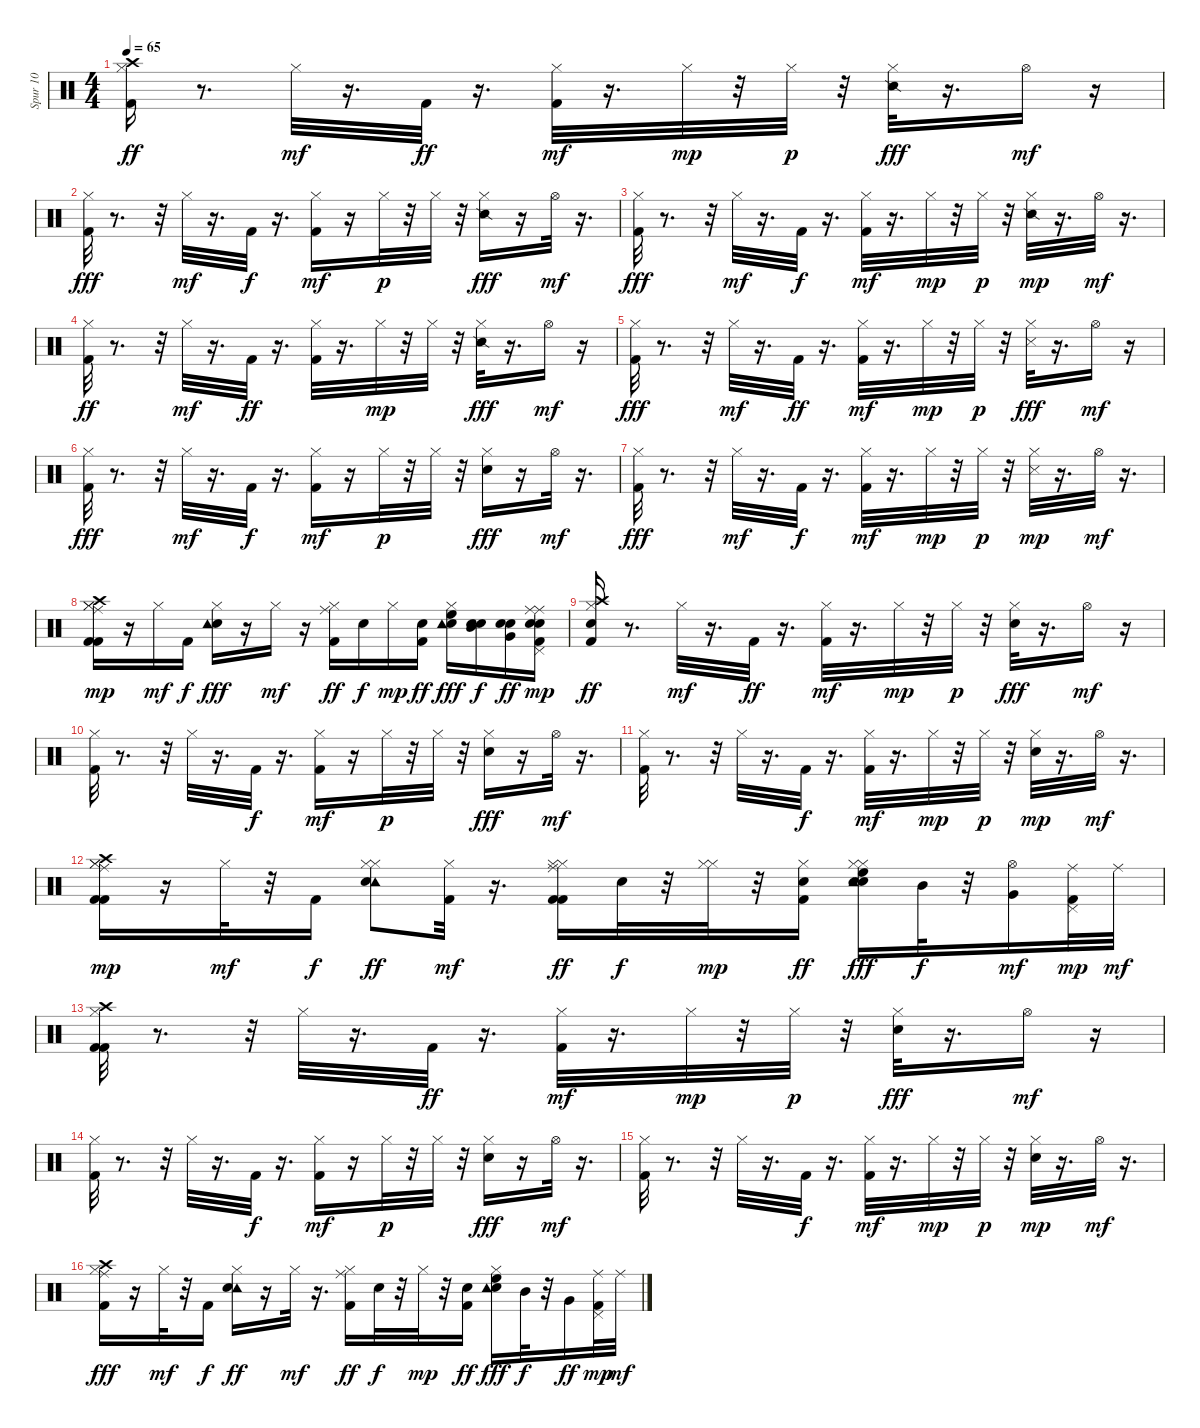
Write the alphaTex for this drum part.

\track ("Spur 10" "Spur 10") {instrument percussion}
\staff {score}
\articulation defaults
\ts (4 4)
\tempo 65
\clef neutral
\ks c
("Kick (hit) 2" "Hi-Hat (closed)" "Crash high (hit)").16{dy ff} r.8{d} "Hi-Hat (closed)".32{dy mf} r.16{d} "Kick (hit) 2".32{dy ff} r.16{d} ("Kick (hit) 2" "Hi-Hat (closed)").32{dy mf} r.16{d} "Hi-Hat (closed)".32{dy mp} r.32 "Hi-Hat (closed)".32{dy p} r.32 ("Hi-Hat (closed)" "Snare (side stick) 2").32{dy fff} r.16{d} "Hi-Hat (open)".16{dy mf} r.16 |
("Hi-Hat (closed)" "Kick (hit) 2").32{dy fff} r.8{d} r.32 "Hi-Hat (closed)".32{dy mf} r.16{d} "Kick (hit) 2".32{dy f} r.16{d} ("Kick (hit) 2" "Hi-Hat (closed)").16{dy mf} r.16 "Hi-Hat (closed)".32{dy p} r.32 "Hi-Hat (closed)".32 r.32 ("Hi-Hat (closed)" "Snare (side stick) 2").16{dy fff} r.16 "Hi-Hat (open)".32{dy mf} r.16{d} |
("Hi-Hat (closed)" "Kick (hit) 2").32{dy fff} r.8{d} r.32 "Hi-Hat (closed)".32{dy mf} r.16{d} "Kick (hit) 2".32{dy f} r.16{d} ("Kick (hit) 2" "Hi-Hat (closed)").32{dy mf} r.16{d} "Hi-Hat (closed)".32{dy mp} r.32 "Hi-Hat (closed)".32{dy p} r.32 ("Snare (side stick) 2" "Hi-Hat (closed)").32{dy mp} r.16{d} "Hi-Hat (open)".32{dy mf} r.16{d} |
("Hi-Hat (closed)" "Kick (hit) 2").32{dy ff} r.8{d} r.32 "Hi-Hat (closed)".32{dy mf} r.16{d} "Kick (hit) 2".32{dy ff} r.16{d} ("Hi-Hat (closed)" "Kick (hit) 2").32 r.16{d} "Hi-Hat (closed)".32{dy mp} r.32 "Hi-Hat (closed)".32 r.32 ("Hi-Hat (closed)" "Snare (side stick) 2").32{dy fff} r.16{d} "Hi-Hat (open)".16{dy mf} r.16 |
("Hi-Hat (closed)" "Kick (hit) 2").32{dy fff} r.8{d} r.32 "Hi-Hat (closed)".32{dy mf} r.16{d} "Kick (hit) 2".32{dy ff} r.16{d} ("Kick (hit) 2" "Hi-Hat (closed)").32{dy mf} r.16{d} "Hi-Hat (closed)".32{dy mp} r.32 "Hi-Hat (closed)".32{dy p} r.32 ("Hi-Hat (closed)" "Snare (side stick) 3").32{dy fff} r.16{d} "Hi-Hat (open)".16{dy mf} r.16 |
("Hi-Hat (closed)" "Kick (hit) 2").32{dy fff} r.8{d} r.32 "Hi-Hat (closed)".32{dy mf} r.16{d} "Kick (hit) 2".32{dy f} r.16{d} ("Kick (hit) 2" "Hi-Hat (closed)").16{dy mf} r.16 "Hi-Hat (closed)".32{dy p} r.32 "Hi-Hat (closed)".32 r.32 ("Hi-Hat (closed)" "Snare (hit) 2").16{dy fff} r.16 "Hi-Hat (open)".32{dy mf} r.16{d} |
("Hi-Hat (closed)" "Kick (hit) 2").32{dy fff} r.8{d} r.32 "Hi-Hat (closed)".32{dy mf} r.16{d} "Kick (hit) 2".32{dy f} r.16{d} ("Kick (hit) 2" "Hi-Hat (closed)").32{dy mf} r.16{d} "Hi-Hat (closed)".32{dy mp} r.32 "Hi-Hat (closed)".32{dy p} r.32 ("Snare (side stick) 3" "Hi-Hat (closed)").32{dy mp} r.16{d} "Hi-Hat (open)".32{dy mf} r.16{d} |
("Hi-Hat (closed)" "Crash high (hit)" "Ride (middle)" "Kick (hit) 2" "Kick (hit) 2" "Hi-Hat (closed)").16{dy mp} r.16 "Hi-Hat (closed)".16{dy mf} "Kick (hit) 2".16{dy f} ("Hi-Hat (closed)" "Electric Snare (hit)" "Tambourine (hit)").16{dy fff} r.16 "Hi-Hat (closed)".16{dy mf} r.16 ("Ride (middle)" "Hi-Hat (closed)" "Kick (hit) 2").16{dy ff} "Electric Snare (hit)".16{dy f} "Hi-Hat (closed)".16{dy mp} ("Kick (hit) 2" "Electric Snare (hit)").16{dy ff} ("High Floor Tom (hit)" "Electric Snare (hit)" "Hi-Hat (closed)" "Tambourine (hit)").16{dy fff} ("Electric Snare (hit)" "Electric Snare (hit)" "Mid Tom (hit)").16{dy f} ("Electric Snare (hit)" "Electric Snare (hit)" "Very Low Tom (hit)").16{dy ff} ("Electric Snare (hit)" "Pedal Hi-Hat (hit)" "Ride (middle)" "Electric Snare (hit)" "Ride (middle)" "Kick (hit) 2").16{dy mp} |
("Hi-Hat (closed)" "Electric Snare (hit)" "Kick (hit) 2" "Crash high (hit)").16{dy ff} r.8{d} "Hi-Hat (closed)".32{dy mf} r.16{d} "Kick (hit) 2".32{dy ff} r.16{d} ("Kick (hit) 2" "Hi-Hat (closed)").32{dy mf} r.16{d} "Hi-Hat (closed)".32{dy mp} r.32 "Hi-Hat (closed)".32{dy p} r.32 ("Hi-Hat (closed)" "Snare (hit) 2").32{dy fff} r.16{d} "Hi-Hat (open)".16{dy mf} r.16 |
("Kick (hit) 2" "Hi-Hat (closed)").32 r.8{d} r.32 "Hi-Hat (closed)".32 r.16{d} "Kick (hit) 2".32{dy f} r.16{d} ("Kick (hit) 2" "Hi-Hat (closed)").16{dy mf} r.16 "Hi-Hat (closed)".32{dy p} r.32 "Hi-Hat (closed)".32 r.32 ("Hi-Hat (closed)" "Snare (hit) 2").16{dy fff} r.16 "Hi-Hat (open)".32{dy mf} r.16{d} |
("Kick (hit) 2" "Hi-Hat (closed)").32 r.8{d} r.32 "Hi-Hat (closed)".32 r.16{d} "Kick (hit) 2".32{dy f} r.16{d} ("Kick (hit) 2" "Hi-Hat (closed)").32{dy mf} r.16{d} "Hi-Hat (closed)".32{dy mp} r.32 "Hi-Hat (closed)".32{dy p} r.32 ("Snare (hit) 2" "Hi-Hat (closed)").32{dy mp} r.16{d} "Hi-Hat (open)".32{dy mf} r.16{d} |
("Kick (hit) 2" "Hi-Hat (closed)" "Crash high (hit)" "Ride (middle)" "Kick (hit) 2" "Hi-Hat (closed)").16{dy mp} r.16 "Hi-Hat (closed)".32{dy mf} r.32 "Kick (hit) 2".16{dy f} ("Hi-Hat (closed)" "Tambourine (hit)" "Hi-Hat (closed)" "Electric Snare (hit)").8{dy ff} ("Kick (hit) 2" "Hi-Hat (closed)").32{dy mf} r.16{d} ("Ride (middle)" "Hi-Hat (closed)" "Hi-Hat (closed)" "Kick (hit) 2" "Kick (hit) 2").16{dy ff} "Electric Snare (hit)".32{dy f} r.32 ("Hi-Hat (closed)" "Hi-Hat (closed)").32{dy mp} r.32 ("Kick (hit) 2" "Hi-Hat (closed)" "Electric Snare (hit)").16{dy ff} ("High Floor Tom (hit)" "Hi-Hat (closed)" "Hi-Hat (closed)" "Electric Snare (hit)" "Snare (hit) 2" "Tambourine (hit)").16{dy fff} "Mid Tom (hit)".32{dy f} r.32 ("Very Low Tom (hit)" "Hi-Hat (open)").16{dy mf} ("Pedal Hi-Hat (hit)" "Ride (middle)" "Kick (hit) 2").32{dy mp} "Ride (middle)".32{dy mf} |
("Kick (hit) 2" "Crash high (hit)" "Hi-Hat (closed)" "Kick (hit) 2").32 r.8{d} r.32 "Hi-Hat (closed)".32 r.16{d} "Kick (hit) 2".32{dy ff} r.16{d} ("Kick (hit) 2" "Hi-Hat (closed)").32{dy mf} r.16{d} "Hi-Hat (closed)".32{dy mp} r.32 "Hi-Hat (closed)".32{dy p} r.32 ("Hi-Hat (closed)" "Snare (hit) 2").32{dy fff} r.16{d} "Hi-Hat (open)".16{dy mf} r.16 |
("Kick (hit) 2" "Hi-Hat (closed)").32 r.8{d} r.32 "Hi-Hat (closed)".32 r.16{d} "Kick (hit) 2".32{dy f} r.16{d} ("Kick (hit) 2" "Hi-Hat (closed)").16{dy mf} r.16 "Hi-Hat (closed)".32{dy p} r.32 "Hi-Hat (closed)".32 r.32 ("Hi-Hat (closed)" "Snare (hit) 2").16{dy fff} r.16 "Hi-Hat (open)".32{dy mf} r.16{d} |
("Kick (hit) 2" "Hi-Hat (closed)").32 r.8{d} r.32 "Hi-Hat (closed)".32 r.16{d} "Kick (hit) 2".32{dy f} r.16{d} ("Kick (hit) 2" "Hi-Hat (closed)").32{dy mf} r.16{d} "Hi-Hat (closed)".32{dy mp} r.32 "Hi-Hat (closed)".32{dy p} r.32 ("Snare (hit) 2" "Hi-Hat (closed)").32{dy mp} r.16{d} "Hi-Hat (open)".32{dy mf} r.16{d} |
("Ride (middle)" "Kick (hit) 2" "Hi-Hat (closed)" "Crash high (hit)").16{dy fff} r.16 "Hi-Hat (closed)".32{dy mf} r.32 "Kick (hit) 2".16{dy f} ("Hi-Hat (closed)" "Tambourine (hit)" "Electric Snare (hit)").16{dy ff} r.16 "Hi-Hat (closed)".32{dy mf} r.16{d} ("Ride (middle)" "Hi-Hat (closed)" "Kick (hit) 2").16{dy ff} "Electric Snare (hit)".32{dy f} r.32 "Hi-Hat (closed)".32{dy mp} r.32 ("Kick (hit) 2" "Electric Snare (hit)").16{dy ff} ("High Floor Tom (hit)" "Hi-Hat (closed)" "Electric Snare (hit)" "Tambourine (hit)").16{dy fff} "Mid Tom (hit)".32{dy f} r.32 "Very Low Tom (hit)".16{dy ff} ("Pedal Hi-Hat (hit)" "Kick (hit) 2" "Ride (middle)").32{dy mp} "Ride (middle)".32{dy mf}
